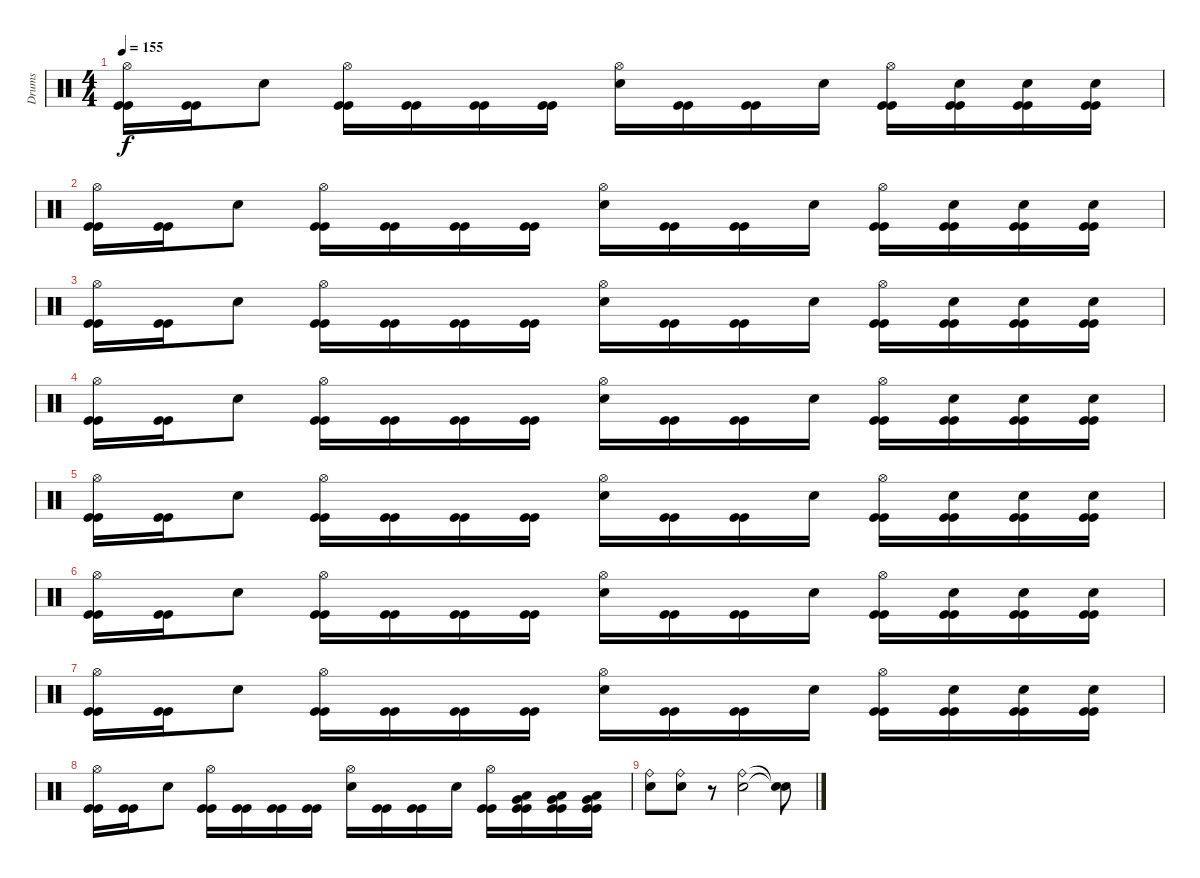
\track ("Drums" "Drums") {instrument percussion}
\staff {score}
\articulation defaults
\ts (4 4)
\tempo 155
\clef neutral
\ks c
("Hi-Hat (open)" "Kick (hit)" "Kick (hit)").16{dy f} ("Kick (hit)" "Kick (hit)").16 "Electric Snare (hit)".8 ("Hi-Hat (open)" "Kick (hit)" "Kick (hit)").16 ("Kick (hit)" "Kick (hit)").16 ("Kick (hit)" "Kick (hit)").16 ("Kick (hit)" "Kick (hit)").16 ("Hi-Hat (open)" "Electric Snare (hit)").16 ("Kick (hit)" "Kick (hit)").16 ("Kick (hit)" "Kick (hit)").16 "Electric Snare (hit)".16 ("Hi-Hat (open)" "Kick (hit)" "Kick (hit)").16 ("Electric Snare (hit)" "Kick (hit)" "Kick (hit)").16 ("Electric Snare (hit)" "Kick (hit)" "Kick (hit)").16 ("Electric Snare (hit)" "Kick (hit)" "Kick (hit)").16 |
("Hi-Hat (open)" "Kick (hit)" "Kick (hit)").16 ("Kick (hit)" "Kick (hit)").16 "Electric Snare (hit)".8 ("Hi-Hat (open)" "Kick (hit)" "Kick (hit)").16 ("Kick (hit)" "Kick (hit)").16 ("Kick (hit)" "Kick (hit)").16 ("Kick (hit)" "Kick (hit)").16 ("Hi-Hat (open)" "Electric Snare (hit)").16 ("Kick (hit)" "Kick (hit)").16 ("Kick (hit)" "Kick (hit)").16 "Electric Snare (hit)".16 ("Hi-Hat (open)" "Kick (hit)" "Kick (hit)").16 ("Electric Snare (hit)" "Kick (hit)" "Kick (hit)").16 ("Electric Snare (hit)" "Kick (hit)" "Kick (hit)").16 ("Electric Snare (hit)" "Kick (hit)" "Kick (hit)").16 |
("Hi-Hat (open)" "Kick (hit)" "Kick (hit)").16 ("Kick (hit)" "Kick (hit)").16 "Electric Snare (hit)".8 ("Hi-Hat (open)" "Kick (hit)" "Kick (hit)").16 ("Kick (hit)" "Kick (hit)").16 ("Kick (hit)" "Kick (hit)").16 ("Kick (hit)" "Kick (hit)").16 ("Hi-Hat (open)" "Electric Snare (hit)").16 ("Kick (hit)" "Kick (hit)").16 ("Kick (hit)" "Kick (hit)").16 "Electric Snare (hit)".16 ("Hi-Hat (open)" "Kick (hit)" "Kick (hit)").16 ("Electric Snare (hit)" "Kick (hit)" "Kick (hit)").16 ("Electric Snare (hit)" "Kick (hit)" "Kick (hit)").16 ("Electric Snare (hit)" "Kick (hit)" "Kick (hit)").16 |
("Hi-Hat (open)" "Kick (hit)" "Kick (hit)").16 ("Kick (hit)" "Kick (hit)").16 "Electric Snare (hit)".8 ("Hi-Hat (open)" "Kick (hit)" "Kick (hit)").16 ("Kick (hit)" "Kick (hit)").16 ("Kick (hit)" "Kick (hit)").16 ("Kick (hit)" "Kick (hit)").16 ("Hi-Hat (open)" "Electric Snare (hit)").16 ("Kick (hit)" "Kick (hit)").16 ("Kick (hit)" "Kick (hit)").16 "Electric Snare (hit)".16 ("Hi-Hat (open)" "Kick (hit)" "Kick (hit)").16 ("Electric Snare (hit)" "Kick (hit)" "Kick (hit)").16 ("Electric Snare (hit)" "Kick (hit)" "Kick (hit)").16 ("Electric Snare (hit)" "Kick (hit)" "Kick (hit)").16 |
("Hi-Hat (open)" "Kick (hit)" "Kick (hit)").16 ("Kick (hit)" "Kick (hit)").16 "Electric Snare (hit)".8 ("Hi-Hat (open)" "Kick (hit)" "Kick (hit)").16 ("Kick (hit)" "Kick (hit)").16 ("Kick (hit)" "Kick (hit)").16 ("Kick (hit)" "Kick (hit)").16 ("Hi-Hat (open)" "Electric Snare (hit)").16 ("Kick (hit)" "Kick (hit)").16 ("Kick (hit)" "Kick (hit)").16 "Electric Snare (hit)".16 ("Hi-Hat (open)" "Kick (hit)" "Kick (hit)").16 ("Electric Snare (hit)" "Kick (hit)" "Kick (hit)").16 ("Electric Snare (hit)" "Kick (hit)" "Kick (hit)").16 ("Electric Snare (hit)" "Kick (hit)" "Kick (hit)").16 |
("Hi-Hat (open)" "Kick (hit)" "Kick (hit)").16 ("Kick (hit)" "Kick (hit)").16 "Electric Snare (hit)".8 ("Hi-Hat (open)" "Kick (hit)" "Kick (hit)").16 ("Kick (hit)" "Kick (hit)").16 ("Kick (hit)" "Kick (hit)").16 ("Kick (hit)" "Kick (hit)").16 ("Hi-Hat (open)" "Electric Snare (hit)").16 ("Kick (hit)" "Kick (hit)").16 ("Kick (hit)" "Kick (hit)").16 "Electric Snare (hit)".16 ("Hi-Hat (open)" "Kick (hit)" "Kick (hit)").16 ("Electric Snare (hit)" "Kick (hit)" "Kick (hit)").16 ("Electric Snare (hit)" "Kick (hit)" "Kick (hit)").16 ("Electric Snare (hit)" "Kick (hit)" "Kick (hit)").16 |
("Hi-Hat (open)" "Kick (hit)" "Kick (hit)").16 ("Kick (hit)" "Kick (hit)").16 "Electric Snare (hit)".8 ("Hi-Hat (open)" "Kick (hit)" "Kick (hit)").16 ("Kick (hit)" "Kick (hit)").16 ("Kick (hit)" "Kick (hit)").16 ("Kick (hit)" "Kick (hit)").16 ("Hi-Hat (open)" "Electric Snare (hit)").16 ("Kick (hit)" "Kick (hit)").16 ("Kick (hit)" "Kick (hit)").16 "Electric Snare (hit)".16 ("Hi-Hat (open)" "Kick (hit)" "Kick (hit)").16 ("Electric Snare (hit)" "Kick (hit)" "Kick (hit)").16 ("Electric Snare (hit)" "Kick (hit)" "Kick (hit)").16 ("Electric Snare (hit)" "Kick (hit)" "Kick (hit)").16 |
("Hi-Hat (open)" "Kick (hit)" "Kick (hit)").16 ("Kick (hit)" "Kick (hit)").16 "Electric Snare (hit)".8 ("Hi-Hat (open)" "Kick (hit)" "Kick (hit)").16 ("Kick (hit)" "Kick (hit)").16 ("Kick (hit)" "Kick (hit)").16 ("Kick (hit)" "Kick (hit)").16 ("Hi-Hat (open)" "Electric Snare (hit)").16 ("Kick (hit)" "Kick (hit)").16 ("Kick (hit)" "Kick (hit)").16 "Electric Snare (hit)".16 ("Hi-Hat (open)" "Kick (hit)" "Kick (hit)").16 ("Low Tom (hit)" "Very Low Tom (hit)" "Kick (hit)" "Kick (hit)").16 ("Low Tom (hit)" "Very Low Tom (hit)" "Kick (hit)" "Kick (hit)").16 ("Low Tom (hit)" "Very Low Tom (hit)" "Kick (hit)" "Kick (hit)").16 |
("Ride (bell)" "Snare (hit) 2").8 ("Ride (bell)" "Snare (hit) 2").8 r.8 ("Ride (bell)" "Snare (hit) 2").2 ("Snare (hit)"{t} "Snare (hit)"{t}).8
